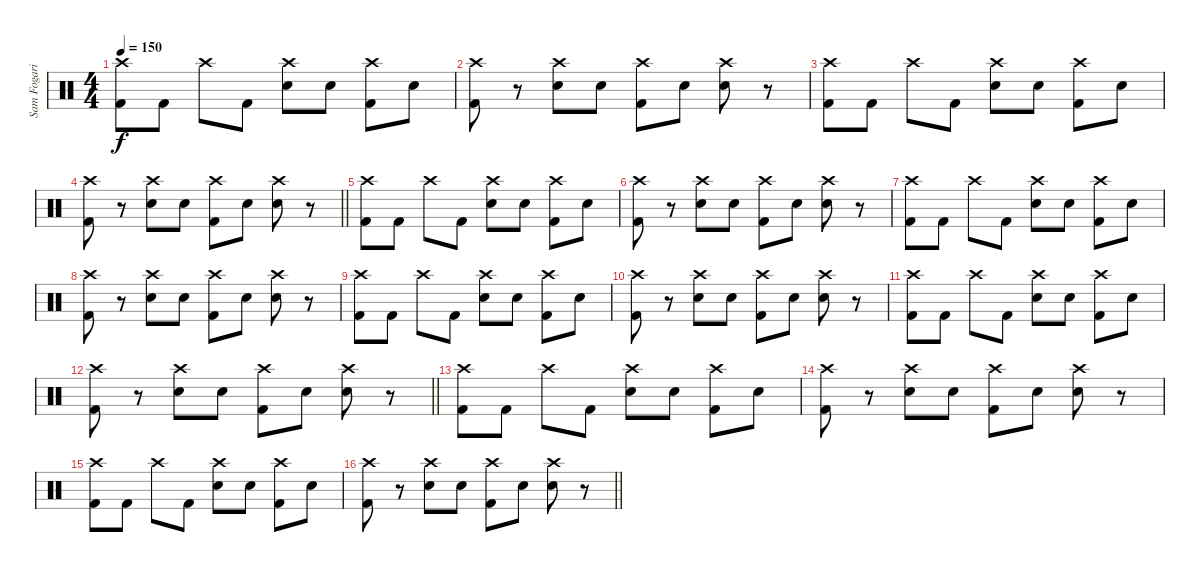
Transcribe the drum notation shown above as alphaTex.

\track ("Sam Fogarino" "Sam Fogari") {instrument percussion}
\staff {score}
\articulation defaults
\ts (4 4)
\tempo 150
\clef neutral
\ks c
("Crash high (hit)" "Kick (hit) 2").8{dy f} "Kick (hit) 2".8 "Crash high (hit)".8 "Kick (hit) 2".8 ("Crash high (hit)" "Electric Snare (hit)").8 "Electric Snare (hit)".8 ("Crash high (hit)" "Kick (hit) 2").8 "Electric Snare (hit)".8 |
("Crash high (hit)" "Kick (hit) 2").8 r.8 ("Crash high (hit)" "Electric Snare (hit)").8 "Electric Snare (hit)".8 ("Crash high (hit)" "Kick (hit) 2").8 "Electric Snare (hit)".8 ("Crash high (hit)" "Electric Snare (hit)").8 r.8 |
("Crash high (hit)" "Kick (hit) 2").8 "Kick (hit) 2".8 "Crash high (hit)".8 "Kick (hit) 2".8 ("Crash high (hit)" "Electric Snare (hit)").8 "Electric Snare (hit)".8 ("Crash high (hit)" "Kick (hit) 2").8 "Electric Snare (hit)".8 |
\barLineRight lightlight
("Crash high (hit)" "Kick (hit) 2").8 r.8 ("Crash high (hit)" "Electric Snare (hit)").8 "Electric Snare (hit)".8 ("Crash high (hit)" "Kick (hit) 2").8 "Electric Snare (hit)".8 ("Crash high (hit)" "Electric Snare (hit)").8 r.8 |
("Crash high (hit)" "Kick (hit) 2").8 "Kick (hit) 2".8 "Crash high (hit)".8 "Kick (hit) 2".8 ("Crash high (hit)" "Electric Snare (hit)").8 "Electric Snare (hit)".8 ("Crash high (hit)" "Kick (hit) 2").8 "Electric Snare (hit)".8 |
("Crash high (hit)" "Kick (hit) 2").8 r.8 ("Crash high (hit)" "Electric Snare (hit)").8 "Electric Snare (hit)".8 ("Crash high (hit)" "Kick (hit) 2").8 "Electric Snare (hit)".8 ("Crash high (hit)" "Electric Snare (hit)").8 r.8 |
("Crash high (hit)" "Kick (hit) 2").8 "Kick (hit) 2".8 "Crash high (hit)".8 "Kick (hit) 2".8 ("Crash high (hit)" "Electric Snare (hit)").8 "Electric Snare (hit)".8 ("Crash high (hit)" "Kick (hit) 2").8 "Electric Snare (hit)".8 |
("Crash high (hit)" "Kick (hit) 2").8 r.8 ("Crash high (hit)" "Electric Snare (hit)").8 "Electric Snare (hit)".8 ("Crash high (hit)" "Kick (hit) 2").8 "Electric Snare (hit)".8 ("Crash high (hit)" "Electric Snare (hit)").8 r.8 |
("Crash high (hit)" "Kick (hit) 2").8 "Kick (hit) 2".8 "Crash high (hit)".8 "Kick (hit) 2".8 ("Crash high (hit)" "Electric Snare (hit)").8 "Electric Snare (hit)".8 ("Crash high (hit)" "Kick (hit) 2").8 "Electric Snare (hit)".8 |
("Crash high (hit)" "Kick (hit) 2").8 r.8 ("Crash high (hit)" "Electric Snare (hit)").8 "Electric Snare (hit)".8 ("Crash high (hit)" "Kick (hit) 2").8 "Electric Snare (hit)".8 ("Crash high (hit)" "Electric Snare (hit)").8 r.8 |
("Crash high (hit)" "Kick (hit) 2").8 "Kick (hit) 2".8 "Crash high (hit)".8 "Kick (hit) 2".8 ("Crash high (hit)" "Electric Snare (hit)").8 "Electric Snare (hit)".8 ("Crash high (hit)" "Kick (hit) 2").8 "Electric Snare (hit)".8 |
\barLineRight lightlight
("Crash high (hit)" "Kick (hit) 2").8 r.8 ("Crash high (hit)" "Electric Snare (hit)").8 "Electric Snare (hit)".8 ("Crash high (hit)" "Kick (hit) 2").8 "Electric Snare (hit)".8 ("Crash high (hit)" "Electric Snare (hit)").8 r.8 |
("Crash high (hit)" "Kick (hit) 2").8 "Kick (hit) 2".8 "Crash high (hit)".8 "Kick (hit) 2".8 ("Crash high (hit)" "Electric Snare (hit)").8 "Electric Snare (hit)".8 ("Crash high (hit)" "Kick (hit) 2").8 "Electric Snare (hit)".8 |
("Crash high (hit)" "Kick (hit) 2").8 r.8 ("Crash high (hit)" "Electric Snare (hit)").8 "Electric Snare (hit)".8 ("Crash high (hit)" "Kick (hit) 2").8 "Electric Snare (hit)".8 ("Crash high (hit)" "Electric Snare (hit)").8 r.8 |
("Crash high (hit)" "Kick (hit) 2").8 "Kick (hit) 2".8 "Crash high (hit)".8 "Kick (hit) 2".8 ("Crash high (hit)" "Electric Snare (hit)").8 "Electric Snare (hit)".8 ("Crash high (hit)" "Kick (hit) 2").8 "Electric Snare (hit)".8 |
\barLineRight lightlight
("Crash high (hit)" "Kick (hit) 2").8 r.8 ("Crash high (hit)" "Electric Snare (hit)").8 "Electric Snare (hit)".8 ("Crash high (hit)" "Kick (hit) 2").8 "Electric Snare (hit)".8 ("Crash high (hit)" "Electric Snare (hit)").8 r.8
